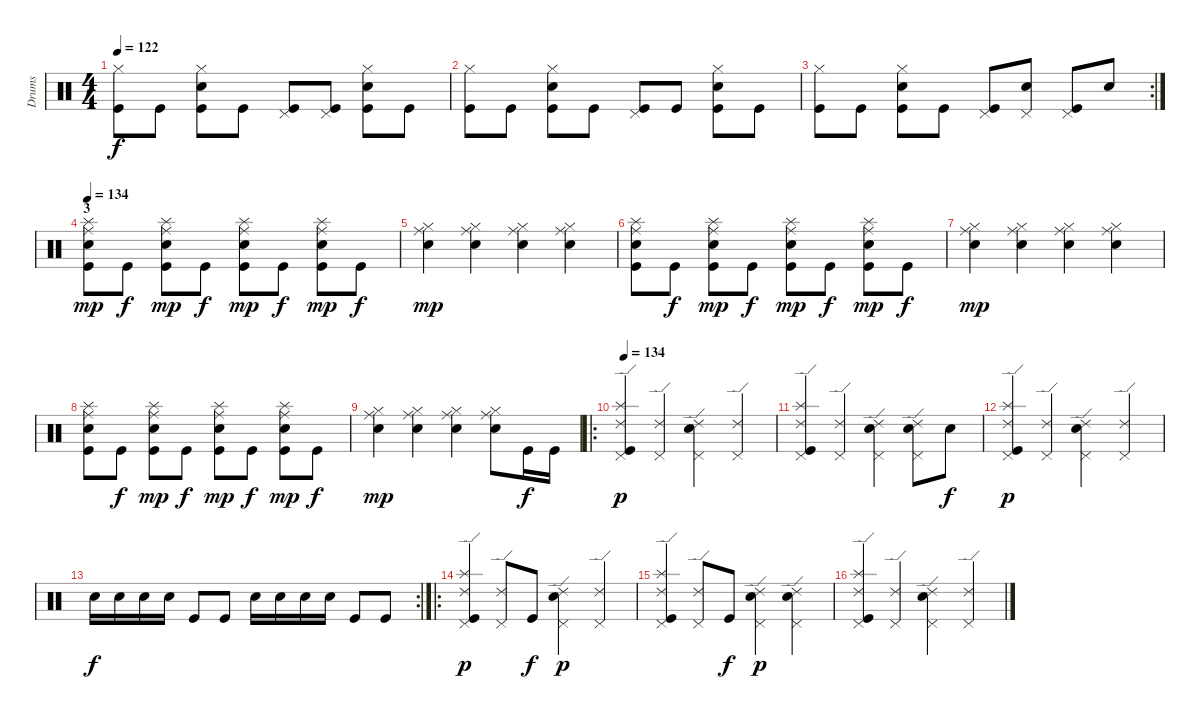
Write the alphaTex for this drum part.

\track ("Drums" "Drums") {instrument percussion}
\staff {score}
\articulation defaults
\ts (4 4)
\tempo 122
\clef neutral
\ks c
("Hi-Hat (closed)" "Kick (hit)").8{dy f} "Kick (hit)".8 ("Hi-Hat (closed)" "Electric Snare (hit)" "Kick (hit)").8 "Kick (hit)".8 ("Pedal Hi-Hat (hit)" "Kick (hit)").8 ("Pedal Hi-Hat (hit)" "Kick (hit)").8 ("Hi-Hat (closed)" "Electric Snare (hit)" "Kick (hit)").8 "Kick (hit)".8 |
("Hi-Hat (closed)" "Kick (hit)").8 "Kick (hit)".8 ("Hi-Hat (closed)" "Electric Snare (hit)" "Kick (hit)").8 "Kick (hit)".8 ("Pedal Hi-Hat (hit)" "Kick (hit)").8 "Kick (hit)".8 ("Hi-Hat (closed)" "Electric Snare (hit)" "Kick (hit)").8 "Kick (hit)".8 |
\rc 2
("Hi-Hat (closed)" "Kick (hit)").8 "Kick (hit)".8 ("Hi-Hat (closed)" "Electric Snare (hit)" "Kick (hit)").8 "Kick (hit)".8 ("Pedal Hi-Hat (hit)" "Kick (hit)").8 ("Pedal Hi-Hat (hit)" "Electric Snare (hit)").8 ("Pedal Hi-Hat (hit)" "Kick (hit)").8 "Electric Snare (hit)".8 |
\section ("" "3")
\tempo 134
("Electric Snare (hit)" "Splash (hit)" "Kick (hit)" "Ride (middle)").8{dy mp} "Kick (hit)".8{dy f} ("Electric Snare (hit)" "Splash (hit)" "Kick (hit)" "Ride (middle)").8{dy mp} "Kick (hit)".8{dy f} ("Electric Snare (hit)" "Splash (hit)" "Kick (hit)" "Ride (middle)").8{dy mp} "Kick (hit)".8{dy f} ("Electric Snare (hit)" "Splash (hit)" "Kick (hit)" "Ride (middle)").8{dy mp} "Kick (hit)".8{dy f} |
("Electric Snare (hit)" "Hi-Hat (closed)" "Ride (middle)").4{dy mp} ("Electric Snare (hit)" "Hi-Hat (closed)" "Ride (middle)").4 ("Electric Snare (hit)" "Hi-Hat (closed)" "Ride (middle)").4 ("Electric Snare (hit)" "Hi-Hat (closed)" "Ride (middle)").4 |
("Electric Snare (hit)" "Splash (hit)" "Kick (hit)" "Ride (middle)").8 "Kick (hit)".8{dy f} ("Electric Snare (hit)" "Splash (hit)" "Kick (hit)" "Ride (middle)").8{dy mp} "Kick (hit)".8{dy f} ("Electric Snare (hit)" "Splash (hit)" "Kick (hit)" "Ride (middle)").8{dy mp} "Kick (hit)".8{dy f} ("Electric Snare (hit)" "Splash (hit)" "Kick (hit)" "Ride (middle)").8{dy mp} "Kick (hit)".8{dy f} |
("Electric Snare (hit)" "Hi-Hat (closed)" "Ride (middle)").4{dy mp} ("Electric Snare (hit)" "Hi-Hat (closed)" "Ride (middle)").4 ("Electric Snare (hit)" "Hi-Hat (closed)" "Ride (middle)").4 ("Electric Snare (hit)" "Hi-Hat (closed)" "Ride (middle)").4 |
("Electric Snare (hit)" "Splash (hit)" "Kick (hit)" "Ride (middle)").8 "Kick (hit)".8{dy f} ("Electric Snare (hit)" "Splash (hit)" "Kick (hit)" "Ride (middle)").8{dy mp} "Kick (hit)".8{dy f} ("Electric Snare (hit)" "Splash (hit)" "Kick (hit)" "Ride (middle)").8{dy mp} "Kick (hit)".8{dy f} ("Electric Snare (hit)" "Splash (hit)" "Kick (hit)" "Ride (middle)").8{dy mp} "Kick (hit)".8{dy f} |
("Electric Snare (hit)" "Hi-Hat (closed)" "Ride (middle)").4{dy mp} ("Electric Snare (hit)" "Hi-Hat (closed)" "Ride (middle)").4 ("Electric Snare (hit)" "Hi-Hat (closed)" "Ride (middle)").4 ("Electric Snare (hit)" "Hi-Hat (closed)" "Ride (middle)").8 "Kick (hit)".16{dy f} "Kick (hit)".16 |
\ro
\tempo 134
("Pedal Hi-Hat (hit)" "Kick (hit)" "Splash (hit)" "Ride (edge) 2").4{dy p} ("Pedal Hi-Hat (hit)" "Ride (edge) 2").4 ("Pedal Hi-Hat (hit)" "Electric Snare (hit)" "Ride (edge) 2").4 ("Pedal Hi-Hat (hit)" "Ride (edge) 2").4 |
("Pedal Hi-Hat (hit)" "Kick (hit)" "Splash (hit)" "Ride (edge) 2").4 ("Pedal Hi-Hat (hit)" "Ride (edge) 2").4 ("Pedal Hi-Hat (hit)" "Electric Snare (hit)" "Ride (edge) 2").4 ("Pedal Hi-Hat (hit)" "Electric Snare (hit)" "Ride (edge) 2").8 "Electric Snare (hit)".8{dy f} |
("Pedal Hi-Hat (hit)" "Kick (hit)" "Splash (hit)" "Ride (edge) 2").4{dy p} ("Pedal Hi-Hat (hit)" "Ride (edge) 2").4 ("Pedal Hi-Hat (hit)" "Electric Snare (hit)" "Ride (edge) 2").4 ("Pedal Hi-Hat (hit)" "Ride (edge) 2").4 |
\rc 2 "Electric Snare (hit)".16{dy f} "Electric Snare (hit)".16 "Electric Snare (hit)".16 "Electric Snare (hit)".16 "Kick (hit)".8 "Kick (hit)".8 "Electric Snare (hit)".16 "Electric Snare (hit)".16 "Electric Snare (hit)".16 "Electric Snare (hit)".16 "Kick (hit)".8 "Kick (hit)".8
|
\ro
("Pedal Hi-Hat (hit)" "Kick (hit)" "Splash (hit)" "Ride (edge) 2").4{dy p} ("Pedal Hi-Hat (hit)" "Ride (edge) 2").8 "Kick (hit)".8{dy f} ("Pedal Hi-Hat (hit)" "Electric Snare (hit)" "Ride (edge) 2").4{dy p} ("Pedal Hi-Hat (hit)" "Ride (edge) 2").4 |
("Pedal Hi-Hat (hit)" "Kick (hit)" "Splash (hit)" "Ride (edge) 2").4 ("Pedal Hi-Hat (hit)" "Ride (edge) 2").8 "Kick (hit)".8{dy f} ("Pedal Hi-Hat (hit)" "Electric Snare (hit)" "Ride (edge) 2").4{dy p} ("Pedal Hi-Hat (hit)" "Electric Snare (hit)" "Ride (edge) 2").4 |
("Pedal Hi-Hat (hit)" "Kick (hit)" "Splash (hit)" "Ride (edge) 2").4 ("Pedal Hi-Hat (hit)" "Ride (edge) 2").4 ("Pedal Hi-Hat (hit)" "Electric Snare (hit)" "Ride (edge) 2").4 ("Pedal Hi-Hat (hit)" "Ride (edge) 2").4
